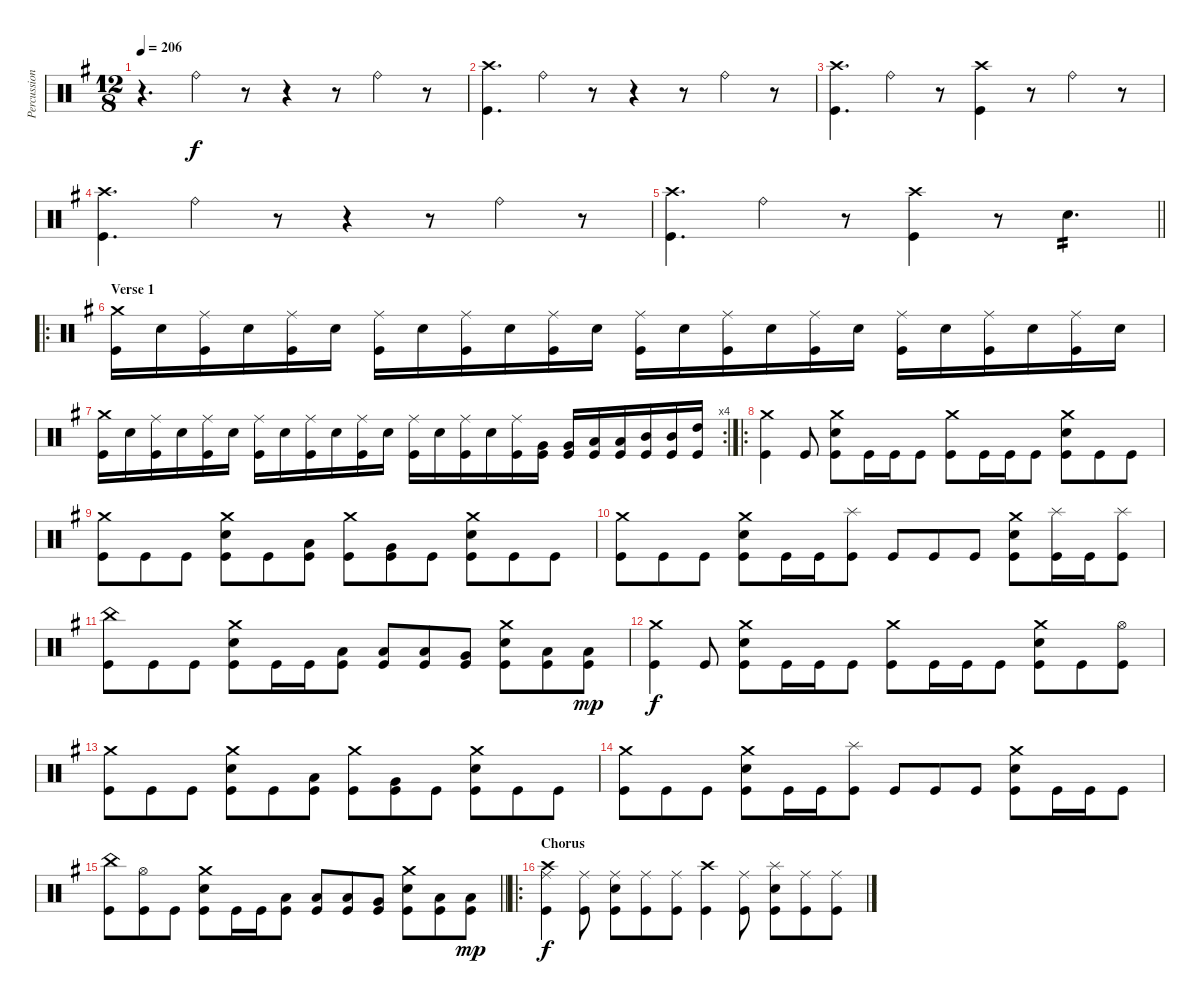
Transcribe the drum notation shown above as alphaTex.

\track ("Percussion" "Percussion") {instrument percussion}
\staff {score}
\articulation defaults
\ts (12 8)
\tempo 206
\clef neutral
\ks g
r.4{d dy f} "Ride (bell)".4 r.8 r.4 r.8 "Ride (bell)".4 r.8 |
("Kick (hit)" "Crash high (hit)").4{d} "Ride (bell)".4 r.8 r.4 r.8 "Ride (bell)".4 r.8 |
("Kick (hit)" "Crash high (hit)").4{d} "Ride (bell)".4 r.8 ("Kick (hit)" "Crash high (hit)").4 r.8 "Ride (bell)".4 r.8 |
("Kick (hit)" "Crash high (hit)").4{d} "Ride (bell)".4 r.8 r.4 r.8 "Ride (bell)".4 r.8 |
\barLineRight lightlight
("Kick (hit)" "Crash high (hit)").4{d} "Ride (bell)".4 r.8 ("Kick (hit)" "Crash high (hit)").4 r.8 "Electric Snare (hit)".4{d tp 2} |
\ro
\section ("" "Verse 1")
("Kick (hit)" "Crash medium (hit)").16 "Electric Snare (hit)".16 ("Kick (hit)" "Ride (middle)").16 "Electric Snare (hit)".16 ("Kick (hit)" "Ride (middle)").16 "Electric Snare (hit)".16 ("Kick (hit)" "Ride (middle)").16 "Electric Snare (hit)".16 ("Kick (hit)" "Ride (middle)").16 "Electric Snare (hit)".16 ("Kick (hit)" "Ride (middle)").16 "Electric Snare (hit)".16 ("Kick (hit)" "Ride (middle)").16 "Electric Snare (hit)".16 ("Kick (hit)" "Ride (middle)").16 "Electric Snare (hit)".16 ("Kick (hit)" "Ride (middle)").16 "Electric Snare (hit)".16 ("Kick (hit)" "Ride (middle)").16 "Electric Snare (hit)".16 ("Kick (hit)" "Ride (middle)").16 "Electric Snare (hit)".16 ("Kick (hit)" "Ride (middle)").16 "Electric Snare (hit)".16 |
\rc 4
("Kick (hit)" "Crash medium (hit)").16 "Electric Snare (hit)".16 ("Kick (hit)" "Ride (middle)").16 "Electric Snare (hit)".16 ("Kick (hit)" "Ride (middle)").16 "Electric Snare (hit)".16 ("Kick (hit)" "Ride (middle)").16 "Electric Snare (hit)".16 ("Kick (hit)" "Ride (middle)").16 "Electric Snare (hit)".16 ("Kick (hit)" "Ride (middle)").16 "Electric Snare (hit)".16 ("Kick (hit)" "Ride (middle)").16 "Electric Snare (hit)".16 ("Kick (hit)" "Ride (middle)").16 "Electric Snare (hit)".16 ("Kick (hit)" "Ride (middle)").16 ("Kick (hit)" "Very Low Tom (hit)").16 ("Kick (hit)" "Very Low Tom (hit)").16 ("Kick (hit)" "Low Tom (hit)").16 ("Kick (hit)" "Low Tom (hit)").16 ("Kick (hit)" "Mid Tom (hit)").16 ("Kick (hit)" "Mid Tom (hit)").16 ("Kick (hit)" "High Tom (hit)").16 |
\ro
("Crash medium (hit)" "Kick (hit)").4 "Kick (hit)".8 ("Crash medium (hit)" "Electric Snare (hit)" "Kick (hit)").8 "Kick (hit)".16 "Kick (hit)".16 "Kick (hit)".8 ("Crash medium (hit)" "Kick (hit)").8 "Kick (hit)".16 "Kick (hit)".16 "Kick (hit)".8 ("Crash medium (hit)" "Electric Snare (hit)" "Kick (hit)").8 "Kick (hit)".8 "Kick (hit)".8 |
("Crash medium (hit)" "Kick (hit)").8 "Kick (hit)".8 "Kick (hit)".8 ("Electric Snare (hit)" "Crash medium (hit)" "Kick (hit)").8 "Kick (hit)".8 ("Low Tom (hit)" "Kick (hit)").8 ("Crash medium (hit)" "Kick (hit)").8 ("Very Low Tom (hit)" "Kick (hit)").8 "Kick (hit)".8 ("Electric Snare (hit)" "Crash medium (hit)" "Kick (hit)").8 "Kick (hit)".8 "Kick (hit)".8 |
("Crash medium (hit)" "Kick (hit)").8 "Kick (hit)".8 "Kick (hit)".8 ("Crash medium (hit)" "Electric Snare (hit)" "Kick (hit)").8 "Kick (hit)".16 "Kick (hit)".16 ("Splash (hit)" "Kick (hit)").8 "Kick (hit)".8 "Kick (hit)".8 "Kick (hit)".8 ("Crash medium (hit)" "Electric Snare (hit)" "Kick (hit)").8 ("Splash (hit)" "Kick (hit)").16 "Kick (hit)".16 ("Splash (hit)" "Kick (hit)").8 |
("China (hit)" "Kick (hit)").8 "Kick (hit)".8 "Kick (hit)".8 ("Crash medium (hit)" "Electric Snare (hit)" "Kick (hit)").8 "Kick (hit)".16 "Kick (hit)".16 ("Low Tom (hit)" "Kick (hit)").8 ("Low Tom (hit)" "Kick (hit)").8 ("Low Tom (hit)" "Kick (hit)").8 ("Very Low Tom (hit)" "Kick (hit)").8 ("Crash medium (hit)" "Electric Snare (hit)" "Kick (hit)").8 ("Low Floor Tom (hit)" "Kick (hit)").8 ("Low Floor Tom (hit)" "Kick (hit)").8{dy mp} |
("Crash medium (hit)" "Kick (hit)").4{dy f} "Kick (hit)".8 ("Crash medium (hit)" "Electric Snare (hit)" "Kick (hit)").8 "Kick (hit)".16 "Kick (hit)".16 "Kick (hit)".8 ("Crash medium (hit)" "Kick (hit)").8 "Kick (hit)".16 "Kick (hit)".16 "Kick (hit)".8 ("Crash medium (hit)" "Electric Snare (hit)" "Kick (hit)").8 "Kick (hit)".8 ("Hi-Hat (open)" "Kick (hit)").8 |
("Crash medium (hit)" "Kick (hit)").8 "Kick (hit)".8 "Kick (hit)".8 ("Electric Snare (hit)" "Crash medium (hit)" "Kick (hit)").8 "Kick (hit)".8 ("Low Tom (hit)" "Kick (hit)").8 ("Crash medium (hit)" "Kick (hit)").8 ("Very Low Tom (hit)" "Kick (hit)").8 "Kick (hit)".8 ("Electric Snare (hit)" "Crash medium (hit)" "Kick (hit)").8 "Kick (hit)".8 "Kick (hit)".8 |
("Crash medium (hit)" "Kick (hit)").8 "Kick (hit)".8 "Kick (hit)".8 ("Crash medium (hit)" "Electric Snare (hit)" "Kick (hit)").8 "Kick (hit)".16 "Kick (hit)".16 ("Splash (hit)" "Kick (hit)").8 "Kick (hit)".8 "Kick (hit)".8 "Kick (hit)".8 ("Crash medium (hit)" "Electric Snare (hit)" "Kick (hit)").8 "Kick (hit)".16 "Kick (hit)".16 "Kick (hit)".8 |
\barLineRight lightlight
("China (hit)" "Kick (hit)").8 ("Hi-Hat (open)" "Kick (hit)").8 "Kick (hit)".8 ("Crash medium (hit)" "Electric Snare (hit)" "Kick (hit)").8 "Kick (hit)".16 "Kick (hit)".16 ("Low Tom (hit)" "Kick (hit)").8 ("Low Tom (hit)" "Kick (hit)").8 ("Low Tom (hit)" "Kick (hit)").8 ("Very Low Tom (hit)" "Kick (hit)").8 ("Crash medium (hit)" "Electric Snare (hit)" "Kick (hit)").8 ("Low Floor Tom (hit)" "Kick (hit)").8 ("Low Floor Tom (hit)" "Kick (hit)").8{dy mp} |
\ro
\section ("" "Chorus")
("Crash high (hit)" "Ride (middle)" "Kick (hit)").4{dy f} ("Ride (middle)" "Kick (hit)").8 ("Ride (middle)" "Electric Snare (hit)" "Kick (hit)").8 ("Ride (middle)" "Kick (hit)").8 ("Ride (middle)" "Kick (hit)").8 ("Crash high (hit)" "Kick (hit)").4 ("Ride (middle)" "Kick (hit)").8 ("Splash (hit)" "Electric Snare (hit)" "Kick (hit)").8 ("Ride (middle)" "Kick (hit)").8 ("Ride (middle)" "Kick (hit)").8
